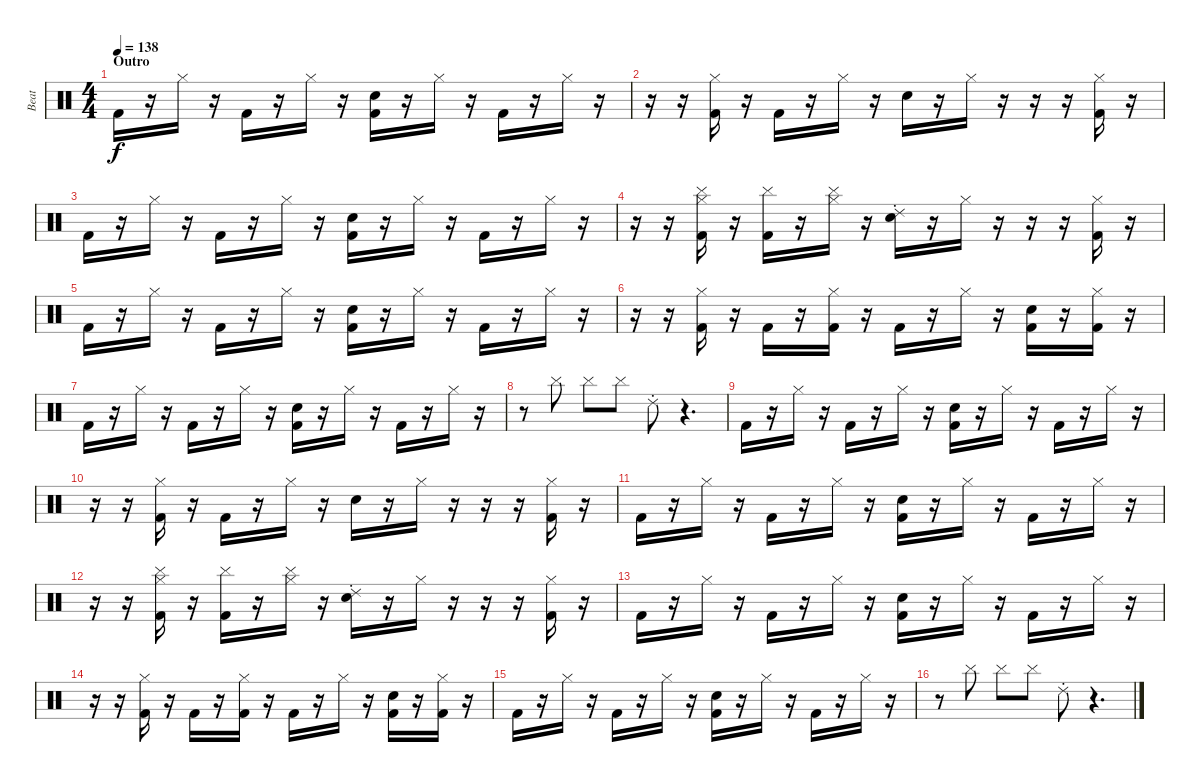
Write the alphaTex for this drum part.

\track ("Beat" "Beat") {instrument percussion}
\staff {score}
\articulation defaults
\ts (4 4)
\section ("" "Outro")
\tempo 138
\clef neutral
\ks c "Kick (hit) 2".16{dy f}
r.16 "Hi-Hat (closed)".16 r.16 "Kick (hit) 2".16 r.16 "Hi-Hat (closed)".16 r.16 ("Electric Snare (hit)" "Kick (hit) 2").16 r.16 "Hi-Hat (closed)".16 r.16 "Kick (hit) 2".16 r.16 "Hi-Hat (closed)".16 r.16 |
r.16 r.16 ("Hi-Hat (closed)" "Kick (hit) 2").16 r.16 "Kick (hit) 2".16 r.16 "Hi-Hat (closed)".16 r.16 "Electric Snare (hit)".16 r.16 "Hi-Hat (closed)".16 r.16 r.16 r.16 ("Hi-Hat (closed)" "Kick (hit) 2").16 r.16 |
"Kick (hit) 2".16 r.16 "Hi-Hat (closed)".16 r.16 "Kick (hit) 2".16 r.16 "Hi-Hat (closed)".16 r.16 ("Electric Snare (hit)" "Kick (hit) 2").16 r.16 "Hi-Hat (closed)".16 r.16 "Kick (hit) 2".16 r.16 "Hi-Hat (closed)".16 r.16 |
r.16 r.16 ("Cymbal (hit)" "Hi-Hat (closed)" "Kick (hit) 2").16 r.16 ("Cymbal (hit)" "Kick (hit) 2").16 r.16 ("Cymbal (hit)" "Hi-Hat (closed)").16 r.16 ("Ride (choke) 2" "Electric Snare (hit)").16 r.16 "Hi-Hat (closed)".16 r.16 r.16 r.16 ("Hi-Hat (closed)" "Kick (hit) 2").16 r.16 |
"Kick (hit) 2".16 r.16 "Hi-Hat (closed)".16 r.16 "Kick (hit) 2".16 r.16 "Hi-Hat (closed)".16 r.16 ("Electric Snare (hit)" "Kick (hit) 2").16 r.16 "Hi-Hat (closed)".16 r.16 "Kick (hit) 2".16 r.16 "Hi-Hat (closed)".16 r.16 |
r.16 r.16 ("Hi-Hat (closed)" "Kick (hit) 2").16 r.16 "Kick (hit) 2".16 r.16 ("Hi-Hat (closed)" "Kick (hit) 2").16 r.16 "Kick (hit) 2".16 r.16 "Hi-Hat (closed)".16 r.16 ("Electric Snare (hit)" "Kick (hit) 2").16 r.16 ("Hi-Hat (closed)" "Kick (hit) 2").16 r.16 |
"Kick (hit) 2".16 r.16 "Hi-Hat (closed)".16 r.16 "Kick (hit) 2".16 r.16 "Hi-Hat (closed)".16 r.16 ("Electric Snare (hit)" "Kick (hit) 2").16 r.16 "Hi-Hat (closed)".16 r.16 "Kick (hit) 2".16 r.16 "Hi-Hat (closed)".16 r.16 |
r.8 "Cymbal (hit)".8 "Cymbal (hit)".8 "Cymbal (hit)".8 "Ride (choke) 2".8 r.4{d} |
"Kick (hit) 2".16 r.16 "Hi-Hat (closed)".16 r.16 "Kick (hit) 2".16 r.16 "Hi-Hat (closed)".16 r.16 ("Electric Snare (hit)" "Kick (hit) 2").16 r.16 "Hi-Hat (closed)".16 r.16 "Kick (hit) 2".16 r.16 "Hi-Hat (closed)".16 r.16 |
r.16 r.16 ("Hi-Hat (closed)" "Kick (hit) 2").16 r.16 "Kick (hit) 2".16 r.16 "Hi-Hat (closed)".16 r.16 "Electric Snare (hit)".16 r.16 "Hi-Hat (closed)".16 r.16 r.16 r.16 ("Hi-Hat (closed)" "Kick (hit) 2").16 r.16 |
"Kick (hit) 2".16 r.16 "Hi-Hat (closed)".16 r.16 "Kick (hit) 2".16 r.16 "Hi-Hat (closed)".16 r.16 ("Electric Snare (hit)" "Kick (hit) 2").16 r.16 "Hi-Hat (closed)".16 r.16 "Kick (hit) 2".16 r.16 "Hi-Hat (closed)".16 r.16 |
r.16 r.16 ("Cymbal (hit)" "Hi-Hat (closed)" "Kick (hit) 2").16 r.16 ("Cymbal (hit)" "Kick (hit) 2").16 r.16 ("Cymbal (hit)" "Hi-Hat (closed)").16 r.16 ("Ride (choke) 2" "Electric Snare (hit)").16 r.16 "Hi-Hat (closed)".16 r.16 r.16 r.16 ("Hi-Hat (closed)" "Kick (hit) 2").16 r.16 |
"Kick (hit) 2".16 r.16 "Hi-Hat (closed)".16 r.16 "Kick (hit) 2".16 r.16 "Hi-Hat (closed)".16 r.16 ("Electric Snare (hit)" "Kick (hit) 2").16 r.16 "Hi-Hat (closed)".16 r.16 "Kick (hit) 2".16 r.16 "Hi-Hat (closed)".16 r.16 |
r.16 r.16 ("Hi-Hat (closed)" "Kick (hit) 2").16 r.16 "Kick (hit) 2".16 r.16 ("Hi-Hat (closed)" "Kick (hit) 2").16 r.16 "Kick (hit) 2".16 r.16 "Hi-Hat (closed)".16 r.16 ("Electric Snare (hit)" "Kick (hit) 2").16 r.16 ("Hi-Hat (closed)" "Kick (hit) 2").16 r.16 |
"Kick (hit) 2".16 r.16 "Hi-Hat (closed)".16 r.16 "Kick (hit) 2".16 r.16 "Hi-Hat (closed)".16 r.16 ("Electric Snare (hit)" "Kick (hit) 2").16 r.16 "Hi-Hat (closed)".16 r.16 "Kick (hit) 2".16 r.16 "Hi-Hat (closed)".16 r.16 |
r.8 "Cymbal (hit)".8 "Cymbal (hit)".8 "Cymbal (hit)".8 "Ride (choke) 2".8 r.4{d}
